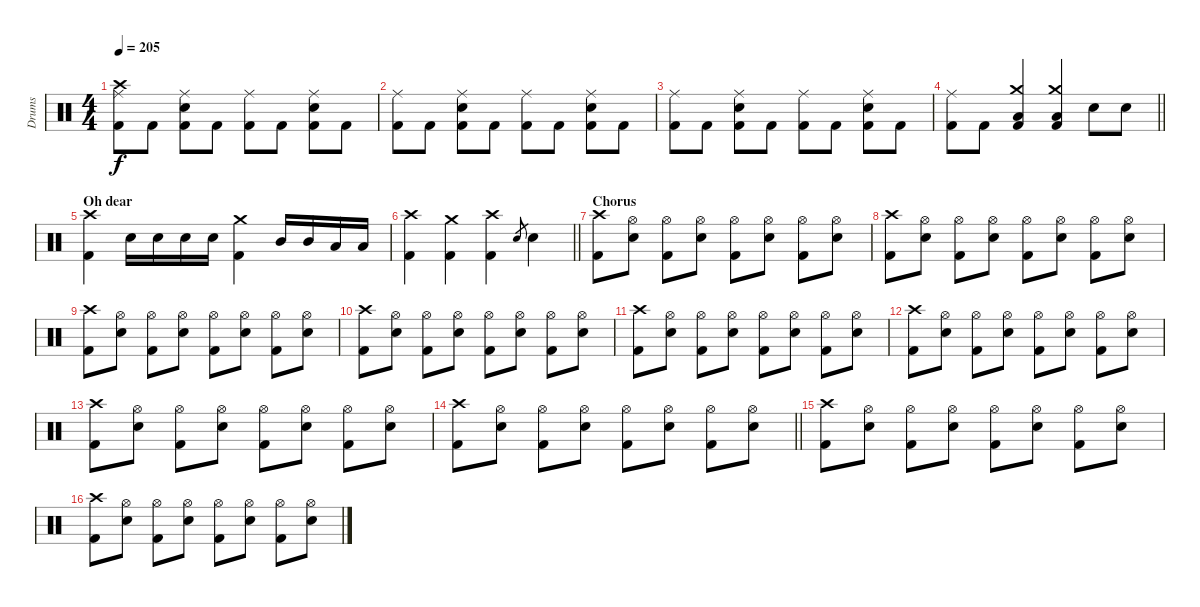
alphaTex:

\track ("Drums" "Drums") {instrument percussion}
\staff {score}
\articulation defaults
\ts (4 4)
\tempo 205
\clef neutral
\ks c
("Crash high (hit)" "Ride (middle)" "Kick (hit) 2").8{dy f} "Kick (hit) 2".8 ("Ride (middle)" "Snare (hit) 2" "Kick (hit) 2").8 "Kick (hit) 2".8 ("Ride (middle)" "Kick (hit) 2").8 "Kick (hit) 2".8 ("Ride (middle)" "Snare (hit) 2" "Kick (hit) 2").8 "Kick (hit) 2".8 |
("Ride (middle)" "Kick (hit) 2").8 "Kick (hit) 2".8 ("Ride (middle)" "Snare (hit) 2" "Kick (hit) 2").8 "Kick (hit) 2".8 ("Ride (middle)" "Kick (hit) 2").8 "Kick (hit) 2".8 ("Ride (middle)" "Snare (hit) 2" "Kick (hit) 2").8 "Kick (hit) 2".8 |
("Ride (middle)" "Kick (hit) 2").8 "Kick (hit) 2".8 ("Ride (middle)" "Snare (hit) 2" "Kick (hit) 2").8 "Kick (hit) 2".8 ("Ride (middle)" "Kick (hit) 2").8 "Kick (hit) 2".8 ("Ride (middle)" "Snare (hit) 2" "Kick (hit) 2").8 "Kick (hit) 2".8 |
\barLineRight lightlight
("Ride (middle)" "Kick (hit) 2").8 "Kick (hit) 2".8 ("Crash medium (hit)" "Low Floor Tom (hit)" "Kick (hit) 2").4 ("Crash medium (hit)" "Low Floor Tom (hit)" "Kick (hit) 2").4 "Snare (hit) 2".8 "Snare (hit) 2".8 |
\section ("" "Oh dear")
("Crash high (hit)" "Kick (hit) 2").4 "Snare (hit) 2".16 "Snare (hit) 2".16 "Snare (hit) 2".16 "Snare (hit) 2".16 ("Crash medium (hit)" "Kick (hit) 2").4 "Mid Tom (hit)".16 "Mid Tom (hit)".16 "Low Tom (hit)".16 "Low Tom (hit)".16 |
\barLineRight lightlight
("Crash high (hit)" "Kick (hit) 2").4 ("Crash medium (hit)" "Kick (hit) 2").4 ("Crash high (hit)" "Kick (hit) 2").4 "Snare (hit) 2".8{gr} "Snare (hit) 2".4 |
\section ("" "Chorus")
("Crash high (hit)" "Kick (hit) 2").8 ("Hi-Hat (open)" "Snare (hit) 2").8 ("Hi-Hat (open)" "Kick (hit) 2").8 ("Hi-Hat (open)" "Snare (hit) 2").8 ("Hi-Hat (open)" "Kick (hit) 2").8 ("Hi-Hat (open)" "Snare (hit) 2").8 ("Hi-Hat (open)" "Kick (hit) 2").8 ("Hi-Hat (open)" "Snare (hit) 2").8 |
("Crash high (hit)" "Kick (hit) 2").8 ("Hi-Hat (open)" "Snare (hit) 2").8 ("Hi-Hat (open)" "Kick (hit) 2").8 ("Hi-Hat (open)" "Snare (hit) 2").8 ("Hi-Hat (open)" "Kick (hit) 2").8 ("Hi-Hat (open)" "Snare (hit) 2").8 ("Hi-Hat (open)" "Kick (hit) 2").8 ("Hi-Hat (open)" "Snare (hit) 2").8 |
("Crash high (hit)" "Kick (hit) 2").8 ("Hi-Hat (open)" "Snare (hit) 2").8 ("Hi-Hat (open)" "Kick (hit) 2").8 ("Hi-Hat (open)" "Snare (hit) 2").8 ("Hi-Hat (open)" "Kick (hit) 2").8 ("Hi-Hat (open)" "Snare (hit) 2").8 ("Hi-Hat (open)" "Kick (hit) 2").8 ("Hi-Hat (open)" "Snare (hit) 2").8 |
("Crash high (hit)" "Kick (hit) 2").8 ("Hi-Hat (open)" "Snare (hit) 2").8 ("Hi-Hat (open)" "Kick (hit) 2").8 ("Hi-Hat (open)" "Snare (hit) 2").8 ("Hi-Hat (open)" "Kick (hit) 2").8 ("Hi-Hat (open)" "Snare (hit) 2").8 ("Hi-Hat (open)" "Kick (hit) 2").8 ("Hi-Hat (open)" "Snare (hit) 2").8 |
("Crash high (hit)" "Kick (hit) 2").8 ("Hi-Hat (open)" "Snare (hit) 2").8 ("Hi-Hat (open)" "Kick (hit) 2").8 ("Hi-Hat (open)" "Snare (hit) 2").8 ("Hi-Hat (open)" "Kick (hit) 2").8 ("Hi-Hat (open)" "Snare (hit) 2").8 ("Hi-Hat (open)" "Kick (hit) 2").8 ("Hi-Hat (open)" "Snare (hit) 2").8 |
("Crash high (hit)" "Kick (hit) 2").8 ("Hi-Hat (open)" "Snare (hit) 2").8 ("Hi-Hat (open)" "Kick (hit) 2").8 ("Hi-Hat (open)" "Snare (hit) 2").8 ("Hi-Hat (open)" "Kick (hit) 2").8 ("Hi-Hat (open)" "Snare (hit) 2").8 ("Hi-Hat (open)" "Kick (hit) 2").8 ("Hi-Hat (open)" "Snare (hit) 2").8 |
("Crash high (hit)" "Kick (hit) 2").8 ("Hi-Hat (open)" "Snare (hit) 2").8 ("Hi-Hat (open)" "Kick (hit) 2").8 ("Hi-Hat (open)" "Snare (hit) 2").8 ("Hi-Hat (open)" "Kick (hit) 2").8 ("Hi-Hat (open)" "Snare (hit) 2").8 ("Hi-Hat (open)" "Kick (hit) 2").8 ("Hi-Hat (open)" "Snare (hit) 2").8 |
\barLineRight lightlight
("Crash high (hit)" "Kick (hit) 2").8 ("Hi-Hat (open)" "Snare (hit) 2").8 ("Hi-Hat (open)" "Kick (hit) 2").8 ("Hi-Hat (open)" "Snare (hit) 2").8 ("Hi-Hat (open)" "Kick (hit) 2").8 ("Hi-Hat (open)" "Snare (hit) 2").8 ("Hi-Hat (open)" "Kick (hit) 2").8 ("Hi-Hat (open)" "Snare (hit) 2").8 |
("Crash high (hit)" "Kick (hit) 2").8 ("Hi-Hat (open)" "Snare (hit) 2").8 ("Hi-Hat (open)" "Kick (hit) 2").8 ("Hi-Hat (open)" "Snare (hit) 2").8 ("Hi-Hat (open)" "Kick (hit) 2").8 ("Hi-Hat (open)" "Snare (hit) 2").8 ("Hi-Hat (open)" "Kick (hit) 2").8 ("Hi-Hat (open)" "Snare (hit) 2").8 |
("Crash high (hit)" "Kick (hit) 2").8 ("Hi-Hat (open)" "Snare (hit) 2").8 ("Hi-Hat (open)" "Kick (hit) 2").8 ("Hi-Hat (open)" "Snare (hit) 2").8 ("Hi-Hat (open)" "Kick (hit) 2").8 ("Hi-Hat (open)" "Snare (hit) 2").8 ("Hi-Hat (open)" "Kick (hit) 2").8 ("Hi-Hat (open)" "Snare (hit) 2").8
